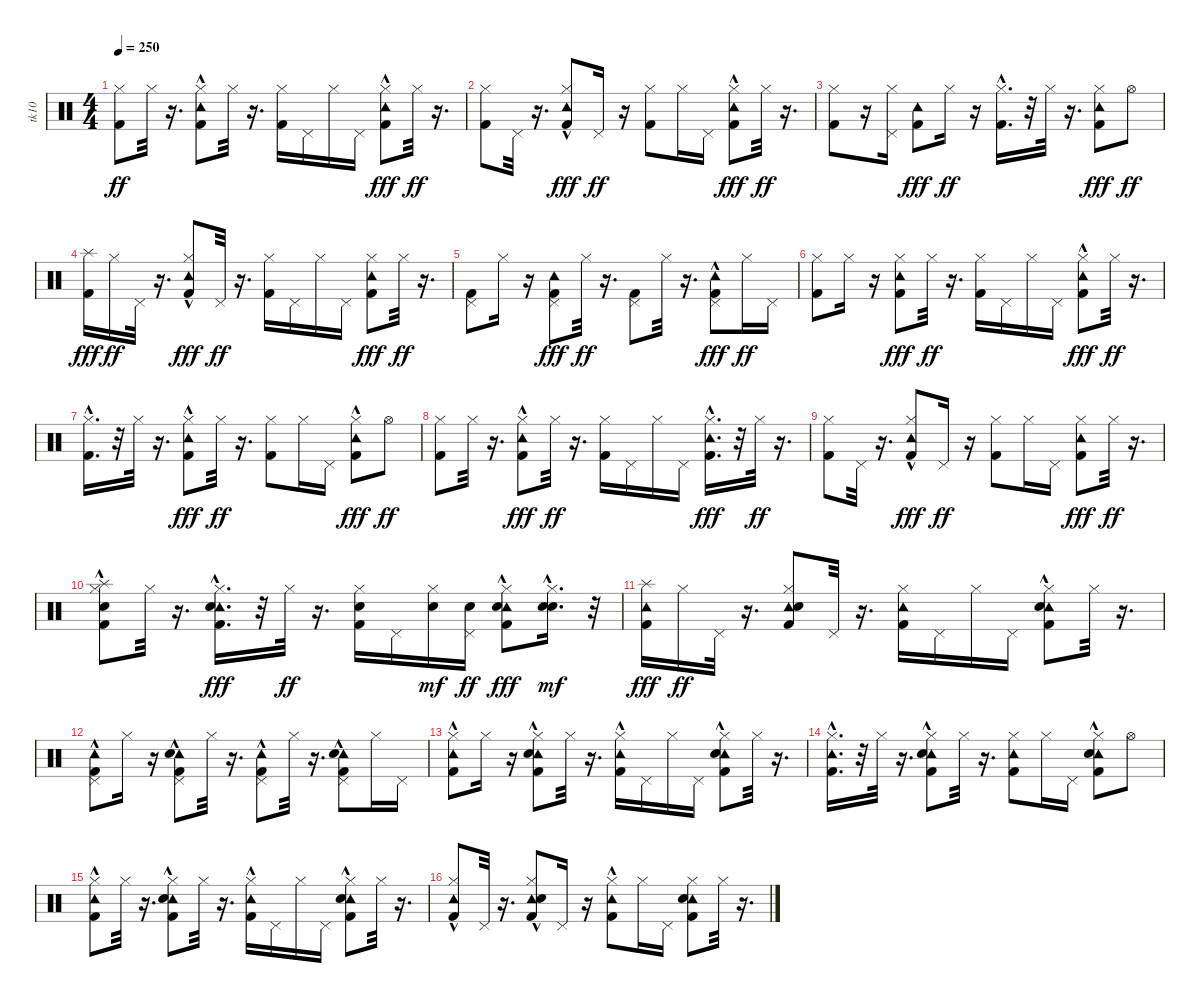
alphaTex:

\track ("tk10" "tk10") {instrument percussion}
\staff {score}
\articulation defaults
\ts (4 4)
\tempo 250
\clef neutral
\ks c
("Kick (hit) 2" "Hi-Hat (closed)").8{dy ff} "Hi-Hat (closed)".32 r.16{d} ("Tambourine (hit)"{hac} "Kick (hit) 2" "Hi-Hat (closed)").8 "Hi-Hat (closed)".32 r.16{d} ("Kick (hit) 2" "Hi-Hat (closed)").16 "Pedal Hi-Hat (hit)".16 "Hi-Hat (closed)".16 "Pedal Hi-Hat (hit)".16 ("Kick (hit) 2"{hac} "Hi-Hat (closed)" "Tambourine (hit)"{hac}).8{dy fff} "Hi-Hat (closed)".32{dy ff} r.16{d} |
("Kick (hit) 2" "Hi-Hat (closed)").8 "Pedal Hi-Hat (hit)".32 r.16{d} ("Kick (hit) 2" "Hi-Hat (closed)" "Tambourine (hit)"{hac}).8{dy fff} "Pedal Hi-Hat (hit)".16{dy ff} r.16 ("Kick (hit) 2" "Hi-Hat (closed)").8 "Hi-Hat (closed)".16 "Pedal Hi-Hat (hit)".16 ("Kick (hit) 2" "Hi-Hat (closed)" "Tambourine (hit)"{hac}).8{dy fff} "Hi-Hat (closed)".32{dy ff} r.16{d} |
("Kick (hit) 2" "Hi-Hat (closed)").8 r.16 ("Hi-Hat (closed)" "Pedal Hi-Hat (hit)").16 ("Kick (hit) 2" "Tambourine (hit)").8{dy fff} "Hi-Hat (closed)".16{dy ff} r.16 ("Kick (hit) 2"{hac} "Hi-Hat (closed)").16{d} r.32 "Hi-Hat (closed)".32 r.16{d} ("Kick (hit) 2" "Hi-Hat (closed)" "Tambourine (hit)").8{dy fff} "Hi-Hat (open)".8{dy ff} |
("Kick (hit) 2" "Splash (hit)").16{dy fff} "Hi-Hat (closed)".16{dy ff} "Pedal Hi-Hat (hit)".32 r.16{d} ("Kick (hit) 2" "Hi-Hat (closed)" "Tambourine (hit)"{hac}).8{dy fff} "Pedal Hi-Hat (hit)".32{dy ff} r.16{d} ("Kick (hit) 2" "Hi-Hat (closed)").16 "Pedal Hi-Hat (hit)".16 "Hi-Hat (closed)".16 "Pedal Hi-Hat (hit)".16 ("Kick (hit) 2" "Hi-Hat (closed)" "Tambourine (hit)").8{dy fff} "Hi-Hat (closed)".32{dy ff} r.16{d} |
("Kick (hit) 2" "Pedal Hi-Hat (hit)").8 "Hi-Hat (closed)".16 r.16 ("Kick (hit) 2" "Pedal Hi-Hat (hit)" "Tambourine (hit)").8{dy fff} "Hi-Hat (closed)".32{dy ff} r.16{d} ("Kick (hit) 2" "Pedal Hi-Hat (hit)").8 "Hi-Hat (closed)".32 r.16{d} ("Kick (hit) 2" "Pedal Hi-Hat (hit)" "Tambourine (hit)"{hac}).8{dy fff} "Hi-Hat (closed)".16{dy ff} "Pedal Hi-Hat (hit)".16 |
("Kick (hit) 2" "Hi-Hat (closed)").8 "Hi-Hat (closed)".16 r.16 ("Kick (hit) 2" "Hi-Hat (closed)" "Tambourine (hit)").8{dy fff} "Hi-Hat (closed)".32{dy ff} r.16{d} ("Kick (hit) 2" "Hi-Hat (closed)").16 "Pedal Hi-Hat (hit)".16 "Hi-Hat (closed)".16 "Pedal Hi-Hat (hit)".16 ("Kick (hit) 2" "Hi-Hat (closed)" "Tambourine (hit)"{hac}).8{dy fff} "Hi-Hat (closed)".32{dy ff} r.16{d} |
("Kick (hit) 2"{hac} "Hi-Hat (closed)").16{d} r.32 "Hi-Hat (closed)".32 r.16{d} ("Kick (hit) 2" "Hi-Hat (closed)" "Tambourine (hit)"{hac}).8{dy fff} "Hi-Hat (closed)".32{dy ff} r.16{d} ("Kick (hit) 2" "Hi-Hat (closed)").8 "Hi-Hat (closed)".16 "Pedal Hi-Hat (hit)".16 ("Kick (hit) 2" "Hi-Hat (closed)" "Tambourine (hit)"{hac}).8{dy fff} "Hi-Hat (open)".8{dy ff} |
("Kick (hit) 2" "Hi-Hat (closed)").8 "Hi-Hat (closed)".32 r.16{d} ("Kick (hit) 2" "Hi-Hat (closed)" "Tambourine (hit)"{hac}).8{dy fff} "Hi-Hat (closed)".32{dy ff} r.16{d} ("Kick (hit) 2" "Hi-Hat (closed)").16 "Pedal Hi-Hat (hit)".16 "Hi-Hat (closed)".16 "Pedal Hi-Hat (hit)".16 ("Kick (hit) 2"{hac} "Hi-Hat (closed)" "Tambourine (hit)"{hac}).16{d dy fff} r.32 "Hi-Hat (closed)".32{dy ff} r.16{d} |
("Kick (hit) 2" "Hi-Hat (closed)").8 "Pedal Hi-Hat (hit)".32 r.16{d} ("Kick (hit) 2" "Hi-Hat (closed)" "Tambourine (hit)"{hac}).8{dy fff} "Pedal Hi-Hat (hit)".16{dy ff} r.16 ("Kick (hit) 2" "Hi-Hat (closed)").8 "Hi-Hat (closed)".16 "Pedal Hi-Hat (hit)".16 ("Kick (hit) 2" "Hi-Hat (closed)" "Tambourine (hit)").8{dy fff} "Hi-Hat (closed)".32{dy ff} r.16{d} |
("Kick (hit) 2" "Hi-Hat (closed)" "Electric Snare (hit)" "Splash (hit)"{hac}).8 "Hi-Hat (closed)".32 r.16{d} ("Kick (hit) 2"{hac} "Hi-Hat (closed)" "Tambourine (hit)"{hac} "Electric Snare (hit)").16{d dy fff} r.32 "Hi-Hat (closed)".32{dy ff} r.16{d} ("Kick (hit) 2" "Hi-Hat (closed)" "Electric Snare (hit)").16 "Pedal Hi-Hat (hit)".16 ("Hi-Hat (closed)" "Electric Snare (hit)").16{dy mf} ("Pedal Hi-Hat (hit)" "Electric Snare (hit)").16{dy ff} ("Kick (hit) 2" "Hi-Hat (closed)" "Tambourine (hit)"{hac} "Electric Snare (hit)").8{dy fff} ("Hi-Hat (closed)" "Electric Snare (hit)"{hac} "Electric Snare (hit)"{hac}).16{d dy mf} r.32 |
("Kick (hit) 2" "Tambourine (hit)" "Splash (hit)").16{dy fff} "Hi-Hat (closed)".16{dy ff} "Pedal Hi-Hat (hit)".32 r.16{d} ("Kick (hit) 2" "Tambourine (hit)" "Hi-Hat (closed)" "Electric Snare (hit)").8 "Pedal Hi-Hat (hit)".32 r.16{d} ("Kick (hit) 2" "Tambourine (hit)" "Hi-Hat (closed)").16 "Pedal Hi-Hat (hit)".16 "Hi-Hat (closed)".16 "Pedal Hi-Hat (hit)".16 ("Kick (hit) 2" "Tambourine (hit)"{hac} "Hi-Hat (closed)" "Electric Snare (hit)"{hac}).8 "Hi-Hat (closed)".32 r.16{d} |
("Kick (hit) 2" "Tambourine (hit)"{hac} "Pedal Hi-Hat (hit)").8 "Hi-Hat (closed)".16 r.16 ("Kick (hit) 2" "Tambourine (hit)"{hac} "Pedal Hi-Hat (hit)" "Electric Snare (hit)"{hac}).8 "Hi-Hat (closed)".32 r.16{d} ("Kick (hit) 2" "Tambourine (hit)"{hac} "Pedal Hi-Hat (hit)").8 "Hi-Hat (closed)".32 r.16{d} ("Kick (hit) 2" "Tambourine (hit)"{hac} "Pedal Hi-Hat (hit)" "Electric Snare (hit)"{hac}).8 "Hi-Hat (closed)".16 "Pedal Hi-Hat (hit)".16 |
("Kick (hit) 2" "Tambourine (hit)"{hac} "Hi-Hat (closed)").8 "Hi-Hat (closed)".16 r.16 ("Kick (hit) 2" "Tambourine (hit)"{hac} "Hi-Hat (closed)" "Electric Snare (hit)"{hac}).8 "Hi-Hat (closed)".32 r.16{d} ("Kick (hit) 2" "Tambourine (hit)"{hac} "Hi-Hat (closed)").16 "Pedal Hi-Hat (hit)".16 "Hi-Hat (closed)".16 "Pedal Hi-Hat (hit)".16 ("Kick (hit) 2" "Tambourine (hit)"{hac} "Hi-Hat (closed)" "Electric Snare (hit)"{hac}).8 "Hi-Hat (closed)".32 r.16{d} |
("Kick (hit) 2"{hac} "Tambourine (hit)"{hac} "Hi-Hat (closed)").16{d} r.32 "Hi-Hat (closed)".32 r.16{d} ("Kick (hit) 2" "Tambourine (hit)" "Hi-Hat (closed)" "Electric Snare (hit)"{hac}).8 "Hi-Hat (closed)".32 r.16{d} ("Kick (hit) 2" "Tambourine (hit)" "Hi-Hat (closed)").8 "Hi-Hat (closed)".16 "Pedal Hi-Hat (hit)".16 ("Kick (hit) 2" "Tambourine (hit)"{hac} "Hi-Hat (closed)" "Electric Snare (hit)"{hac}).8 "Hi-Hat (open)".8 |
("Kick (hit) 2" "Tambourine (hit)"{hac} "Hi-Hat (closed)").8 "Hi-Hat (closed)".32 r.16{d} ("Kick (hit) 2" "Tambourine (hit)" "Hi-Hat (closed)" "Electric Snare (hit)"{hac}).8 "Hi-Hat (closed)".32 r.16{d} ("Kick (hit) 2" "Tambourine (hit)"{hac} "Hi-Hat (closed)").16 "Pedal Hi-Hat (hit)".16 "Hi-Hat (closed)".16 "Pedal Hi-Hat (hit)".16 ("Kick (hit) 2"{hac} "Tambourine (hit)"{hac} "Hi-Hat (closed)" "Electric Snare (hit)"{hac}).8 "Hi-Hat (closed)".32 r.16{d} |
("Kick (hit) 2" "Tambourine (hit)"{hac} "Hi-Hat (closed)").8 "Pedal Hi-Hat (hit)".32 r.16{d} ("Kick (hit) 2" "Tambourine (hit)"{hac} "Hi-Hat (closed)" "Electric Snare (hit)"{hac}).8 "Pedal Hi-Hat (hit)".16 r.16 ("Kick (hit) 2" "Tambourine (hit)"{hac} "Hi-Hat (closed)").8 "Hi-Hat (closed)".16 "Pedal Hi-Hat (hit)".16 ("Kick (hit) 2" "Tambourine (hit)" "Hi-Hat (closed)" "Electric Snare (hit)").8 "Hi-Hat (closed)".32 r.16{d}
